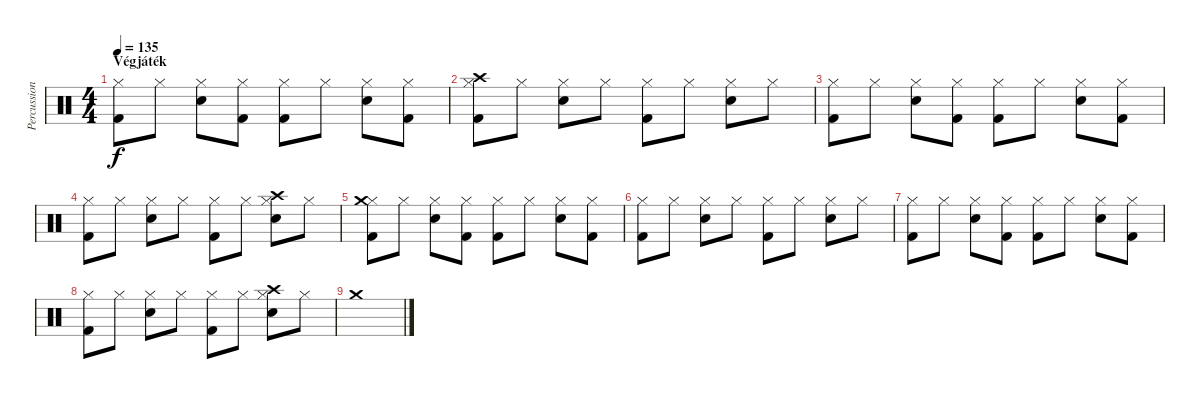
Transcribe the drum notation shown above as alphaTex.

\track ("Percussion" "Percussion") {instrument percussion}
\staff {score}
\articulation defaults
\ts (4 4)
\section ("" "Végjáték")
\tempo 135
\clef neutral
\ks c
("Hi-Hat (closed)" "Kick (hit) 2").8{dy f} "Hi-Hat (closed)".8 ("Hi-Hat (closed)" "Electric Snare (hit)").8 ("Hi-Hat (closed)" "Kick (hit) 2").8 ("Hi-Hat (closed)" "Kick (hit) 2").8 "Hi-Hat (closed)".8 ("Hi-Hat (closed)" "Electric Snare (hit)").8 ("Hi-Hat (closed)" "Kick (hit) 2").8 |
("Hi-Hat (closed)" "Kick (hit) 2" "Crash high (hit)").8 "Hi-Hat (closed)".8 ("Hi-Hat (closed)" "Electric Snare (hit)").8 "Hi-Hat (closed)".8 ("Hi-Hat (closed)" "Kick (hit) 2").8 "Hi-Hat (closed)".8 ("Hi-Hat (closed)" "Electric Snare (hit)").8 "Hi-Hat (closed)".8 |
("Hi-Hat (closed)" "Kick (hit) 2").8 "Hi-Hat (closed)".8 ("Hi-Hat (closed)" "Electric Snare (hit)").8 ("Hi-Hat (closed)" "Kick (hit) 2").8 ("Hi-Hat (closed)" "Kick (hit) 2").8 "Hi-Hat (closed)".8 ("Hi-Hat (closed)" "Electric Snare (hit)").8 ("Hi-Hat (closed)" "Kick (hit) 2").8 |
("Hi-Hat (closed)" "Kick (hit) 2").8 "Hi-Hat (closed)".8 ("Hi-Hat (closed)" "Electric Snare (hit)").8 "Hi-Hat (closed)".8 ("Hi-Hat (closed)" "Kick (hit) 2").8 "Hi-Hat (closed)".8 ("Hi-Hat (closed)" "Crash high (hit)" "Electric Snare (hit)").8 "Hi-Hat (closed)".8 |
("Hi-Hat (closed)" "Kick (hit) 2" "Crash medium (hit)").8 "Hi-Hat (closed)".8 ("Hi-Hat (closed)" "Electric Snare (hit)").8 ("Hi-Hat (closed)" "Kick (hit) 2").8 ("Hi-Hat (closed)" "Kick (hit) 2").8 "Hi-Hat (closed)".8 ("Hi-Hat (closed)" "Electric Snare (hit)").8 ("Hi-Hat (closed)" "Kick (hit) 2").8 |
("Hi-Hat (closed)" "Kick (hit) 2").8 "Hi-Hat (closed)".8 ("Hi-Hat (closed)" "Electric Snare (hit)").8 "Hi-Hat (closed)".8 ("Hi-Hat (closed)" "Kick (hit) 2").8 "Hi-Hat (closed)".8 ("Hi-Hat (closed)" "Electric Snare (hit)").8 "Hi-Hat (closed)".8 |
("Hi-Hat (closed)" "Kick (hit) 2").8 "Hi-Hat (closed)".8 ("Hi-Hat (closed)" "Electric Snare (hit)").8 ("Hi-Hat (closed)" "Kick (hit) 2").8 ("Hi-Hat (closed)" "Kick (hit) 2").8 "Hi-Hat (closed)".8 ("Hi-Hat (closed)" "Electric Snare (hit)").8 ("Hi-Hat (closed)" "Kick (hit) 2").8 |
("Hi-Hat (closed)" "Kick (hit) 2").8 "Hi-Hat (closed)".8 ("Hi-Hat (closed)" "Electric Snare (hit)").8 "Hi-Hat (closed)".8 ("Hi-Hat (closed)" "Kick (hit) 2").8 "Hi-Hat (closed)".8 ("Hi-Hat (closed)" "Crash high (hit)" "Electric Snare (hit)").8 "Hi-Hat (closed)".8 |
"Crash medium (hit)".1
